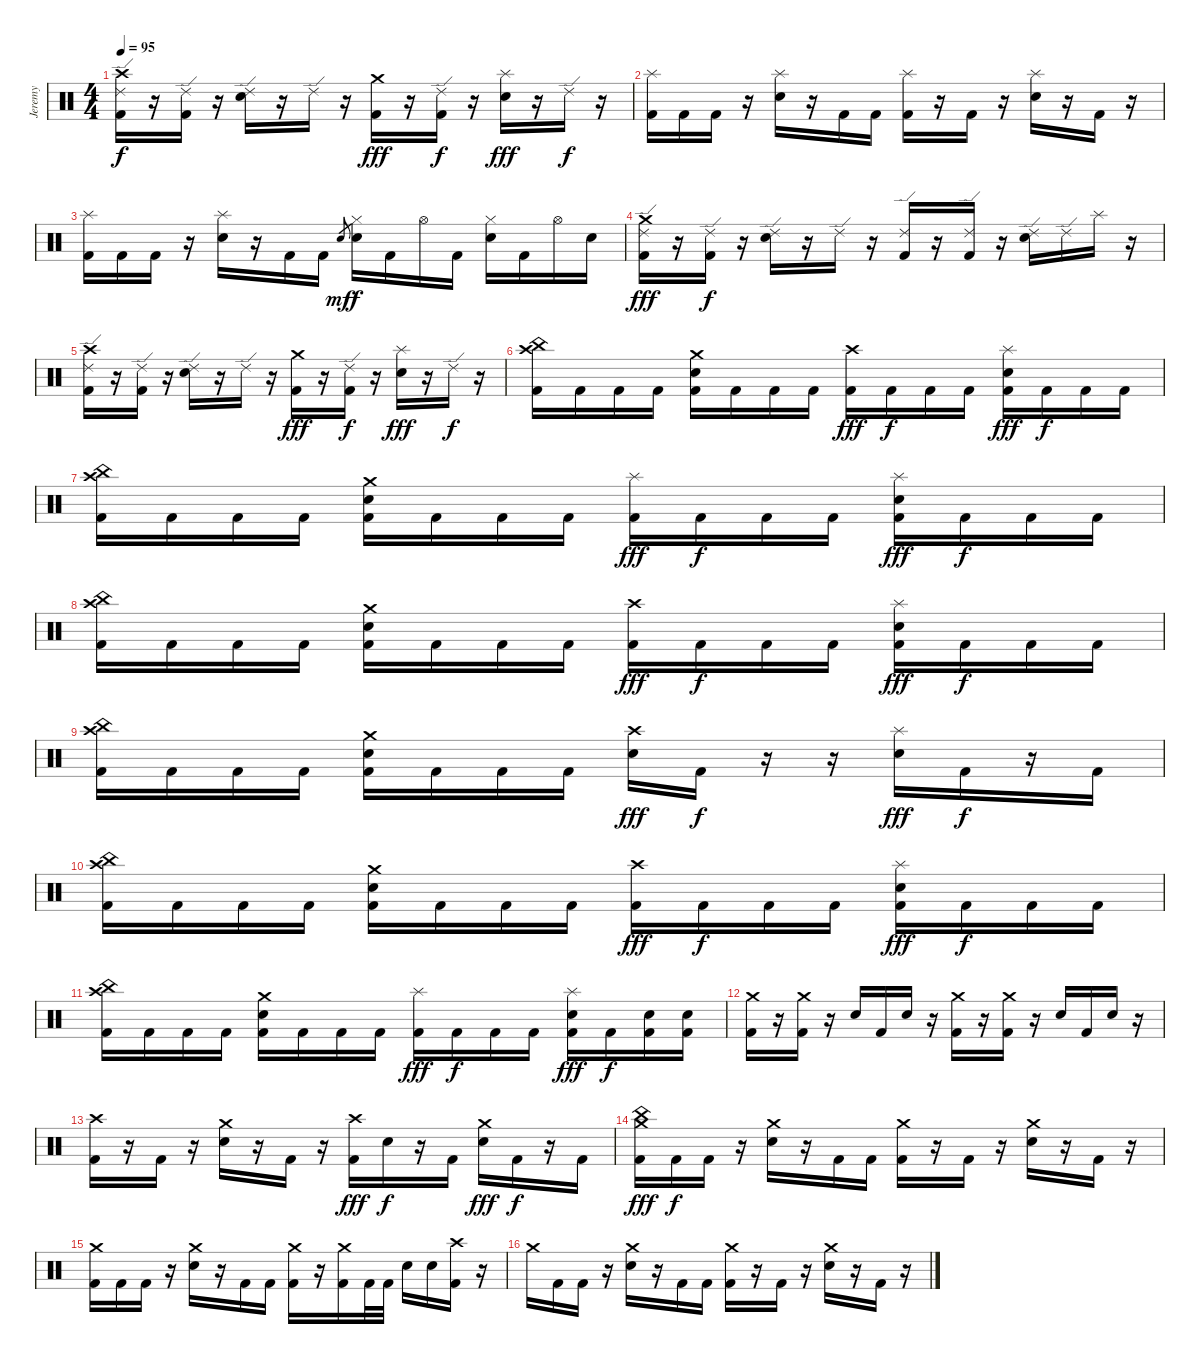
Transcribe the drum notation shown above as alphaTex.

\track ("Jeremy" "Jeremy") {instrument percussion}
\staff {score}
\articulation defaults
\ts (4 4)
\tempo 95
\clef neutral
\ks c
("Crash high (hit)" "Ride (edge) 2" "Kick (hit) 2").16{dy f} r.16 ("Ride (edge) 2" "Kick (hit) 2").16 r.16 ("Ride (edge) 2" "Electric Snare (hit)").16 r.16 "Ride (edge) 2".16 r.16 ("Crash medium (hit)" "Kick (hit) 2").16{dy fff} r.16 ("Ride (edge) 2" "Kick (hit) 2").16{dy f} r.16 ("Splash (hit)" "Electric Snare (hit)").16{dy fff} r.16 "Ride (edge) 2".16{dy f} r.16 |
("Splash (hit)" "Kick (hit) 2").16 "Kick (hit) 2".16 "Kick (hit) 2".16 r.16 ("Splash (hit)" "Electric Snare (hit)").16 r.16 "Kick (hit) 2".16 "Kick (hit) 2".16 ("Splash (hit)" "Kick (hit) 2").16 r.16 "Kick (hit) 2".16 r.16 ("Splash (hit)" "Electric Snare (hit)").16 r.16 "Kick (hit) 2".16 r.16 |
("Splash (hit)" "Kick (hit) 2").16 "Kick (hit) 2".16 "Kick (hit) 2".16 r.16 ("Splash (hit)" "Electric Snare (hit)").16 r.16 "Kick (hit) 2".16 "Kick (hit) 2".16 "Electric Snare (hit)".8{gr dy mf} ("Hi-Hat (closed)" "Electric Snare (hit)").16{dy f} "Kick (hit) 2".16 "Hi-Hat (open)".16 "Kick (hit) 2".16 ("Hi-Hat (closed)" "Electric Snare (hit)").16 "Kick (hit) 2".16 "Hi-Hat (open)".16 "Electric Snare (hit)".16 |
("Crash medium (hit)" "Ride (edge) 2" "Kick (hit) 2").16{dy fff} r.16 ("Ride (edge) 2" "Kick (hit) 2").16{dy f} r.16 ("Ride (edge) 2" "Electric Snare (hit)").16 r.16 "Ride (edge) 2".16 r.16 ("Ride (edge) 2" "Kick (hit) 2").16 r.16 ("Ride (edge) 2" "Kick (hit) 2").16 r.16 ("Ride (edge) 2" "Electric Snare (hit)").16 "Ride (edge) 2".16 "Splash (hit)".16 r.16 |
("Crash high (hit)" "Ride (edge) 2" "Kick (hit) 2").16 r.16 ("Ride (edge) 2" "Kick (hit) 2").16 r.16 ("Ride (edge) 2" "Electric Snare (hit)").16 r.16 "Ride (edge) 2".16 r.16 ("Crash medium (hit)" "Kick (hit) 2").16{dy fff} r.16 ("Ride (edge) 2" "Kick (hit) 2").16{dy f} r.16 ("Splash (hit)" "Electric Snare (hit)").16{dy fff} r.16 "Ride (edge) 2".16{dy f} r.16 |
("Crash high (hit)" "China (hit)" "Kick (hit) 2").16 "Kick (hit) 2".16 "Kick (hit) 2".16 "Kick (hit) 2".16 ("Crash medium (hit)" "Electric Snare (hit)" "Kick (hit) 2").16 "Kick (hit) 2".16 "Kick (hit) 2".16 "Kick (hit) 2".16 ("Crash high (hit)" "Kick (hit) 2").16{dy fff} "Kick (hit) 2".16{dy f} "Kick (hit) 2".16 "Kick (hit) 2".16 ("Splash (hit)" "Electric Snare (hit)" "Kick (hit) 2").16{dy fff} "Kick (hit) 2".16{dy f} "Kick (hit) 2".16 "Kick (hit) 2".16 |
("Crash high (hit)" "China (hit)" "Kick (hit) 2").16 "Kick (hit) 2".16 "Kick (hit) 2".16 "Kick (hit) 2".16 ("Crash medium (hit)" "Electric Snare (hit)" "Kick (hit) 2").16 "Kick (hit) 2".16 "Kick (hit) 2".16 "Kick (hit) 2".16 ("Splash (hit)" "Kick (hit) 2").16{dy fff} "Kick (hit) 2".16{dy f} "Kick (hit) 2".16 "Kick (hit) 2".16 ("Splash (hit)" "Electric Snare (hit)" "Kick (hit) 2").16{dy fff} "Kick (hit) 2".16{dy f} "Kick (hit) 2".16 "Kick (hit) 2".16 |
("Crash high (hit)" "China (hit)" "Kick (hit) 2").16 "Kick (hit) 2".16 "Kick (hit) 2".16 "Kick (hit) 2".16 ("Crash medium (hit)" "Electric Snare (hit)" "Kick (hit) 2").16 "Kick (hit) 2".16 "Kick (hit) 2".16 "Kick (hit) 2".16 ("Crash high (hit)" "Kick (hit) 2").16{dy fff} "Kick (hit) 2".16{dy f} "Kick (hit) 2".16 "Kick (hit) 2".16 ("Splash (hit)" "Electric Snare (hit)" "Kick (hit) 2").16{dy fff} "Kick (hit) 2".16{dy f} "Kick (hit) 2".16 "Kick (hit) 2".16 |
("Crash high (hit)" "China (hit)" "Kick (hit) 2").16 "Kick (hit) 2".16 "Kick (hit) 2".16 "Kick (hit) 2".16 ("Crash medium (hit)" "Electric Snare (hit)" "Kick (hit) 2").16 "Kick (hit) 2".16 "Kick (hit) 2".16 "Kick (hit) 2".16 ("Crash high (hit)" "Electric Snare (hit)").16{dy fff} "Kick (hit) 2".16{dy f} r.16 r.16 ("Splash (hit)" "Electric Snare (hit)").16{dy fff} "Kick (hit) 2".16{dy f} r.16 "Kick (hit) 2".16 |
("Crash high (hit)" "China (hit)" "Kick (hit) 2").16 "Kick (hit) 2".16 "Kick (hit) 2".16 "Kick (hit) 2".16 ("Crash medium (hit)" "Electric Snare (hit)" "Kick (hit) 2").16 "Kick (hit) 2".16 "Kick (hit) 2".16 "Kick (hit) 2".16 ("Crash high (hit)" "Kick (hit) 2").16{dy fff} "Kick (hit) 2".16{dy f} "Kick (hit) 2".16 "Kick (hit) 2".16 ("Splash (hit)" "Electric Snare (hit)" "Kick (hit) 2").16{dy fff} "Kick (hit) 2".16{dy f} "Kick (hit) 2".16 "Kick (hit) 2".16 |
("Crash high (hit)" "China (hit)" "Kick (hit) 2").16 "Kick (hit) 2".16 "Kick (hit) 2".16 "Kick (hit) 2".16 ("Crash medium (hit)" "Electric Snare (hit)" "Kick (hit) 2").16 "Kick (hit) 2".16 "Kick (hit) 2".16 "Kick (hit) 2".16 ("Splash (hit)" "Kick (hit) 2").16{dy fff} "Kick (hit) 2".16{dy f} "Kick (hit) 2".16 "Kick (hit) 2".16 ("Splash (hit)" "Electric Snare (hit)" "Kick (hit) 2").16{dy fff} "Kick (hit) 2".16{dy f} ("Electric Snare (hit)" "Kick (hit) 2").16 ("Electric Snare (hit)" "Kick (hit) 2").16 |
("Crash medium (hit)" "Kick (hit) 2").16 r.16 ("Crash medium (hit)" "Kick (hit) 2").16 r.16 "Electric Snare (hit)".16 "Kick (hit) 2".16 "Electric Snare (hit)".16 r.16 ("Crash medium (hit)" "Kick (hit) 2").16 r.16 ("Crash medium (hit)" "Kick (hit) 2").16 r.16 "Electric Snare (hit)".16 "Kick (hit) 2".16 "Electric Snare (hit)".16 r.16 |
("Crash high (hit)" "Kick (hit) 2").16 r.16 "Kick (hit) 2".16 r.16 ("Crash medium (hit)" "Electric Snare (hit)").16 r.16 "Kick (hit) 2".16 r.16 ("Crash high (hit)" "Kick (hit) 2").16{dy fff} "Electric Snare (hit)".16{dy f} r.16 "Kick (hit) 2".16 ("Crash medium (hit)" "Electric Snare (hit)").16{dy fff} "Kick (hit) 2".16{dy f} r.16 "Kick (hit) 2".16 |
("China (hit)" "Crash medium (hit)" "Kick (hit) 2").16{dy fff} "Kick (hit) 2".16{dy f} "Kick (hit) 2".16 r.16 ("Crash medium (hit)" "Electric Snare (hit)").16 r.16 "Kick (hit) 2".16 "Kick (hit) 2".16 ("Crash medium (hit)" "Kick (hit) 2").16 r.16 "Kick (hit) 2".16 r.16 ("Crash medium (hit)" "Electric Snare (hit)").16 r.16 "Kick (hit) 2".16 r.16 |
("Crash medium (hit)" "Kick (hit) 2").16 "Kick (hit) 2".16 "Kick (hit) 2".16 r.16 ("Crash medium (hit)" "Electric Snare (hit)").16 r.16 "Kick (hit) 2".16 "Kick (hit) 2".16 ("Crash medium (hit)" "Kick (hit) 2").16 r.16 ("Crash medium (hit)" "Kick (hit) 2").16 "Kick (hit) 2".32 "Kick (hit) 2".32 "Electric Snare (hit)".16 "Electric Snare (hit)".16 ("Crash high (hit)" "Kick (hit) 2").16 r.16 |
"Crash medium (hit)".16 "Kick (hit) 2".16 "Kick (hit) 2".16 r.16 ("Crash medium (hit)" "Electric Snare (hit)").16 r.16 "Kick (hit) 2".16 "Kick (hit) 2".16 ("Crash medium (hit)" "Kick (hit) 2").16 r.16 "Kick (hit) 2".16 r.16 ("Crash medium (hit)" "Electric Snare (hit)").16 r.16 "Kick (hit) 2".16 r.16
